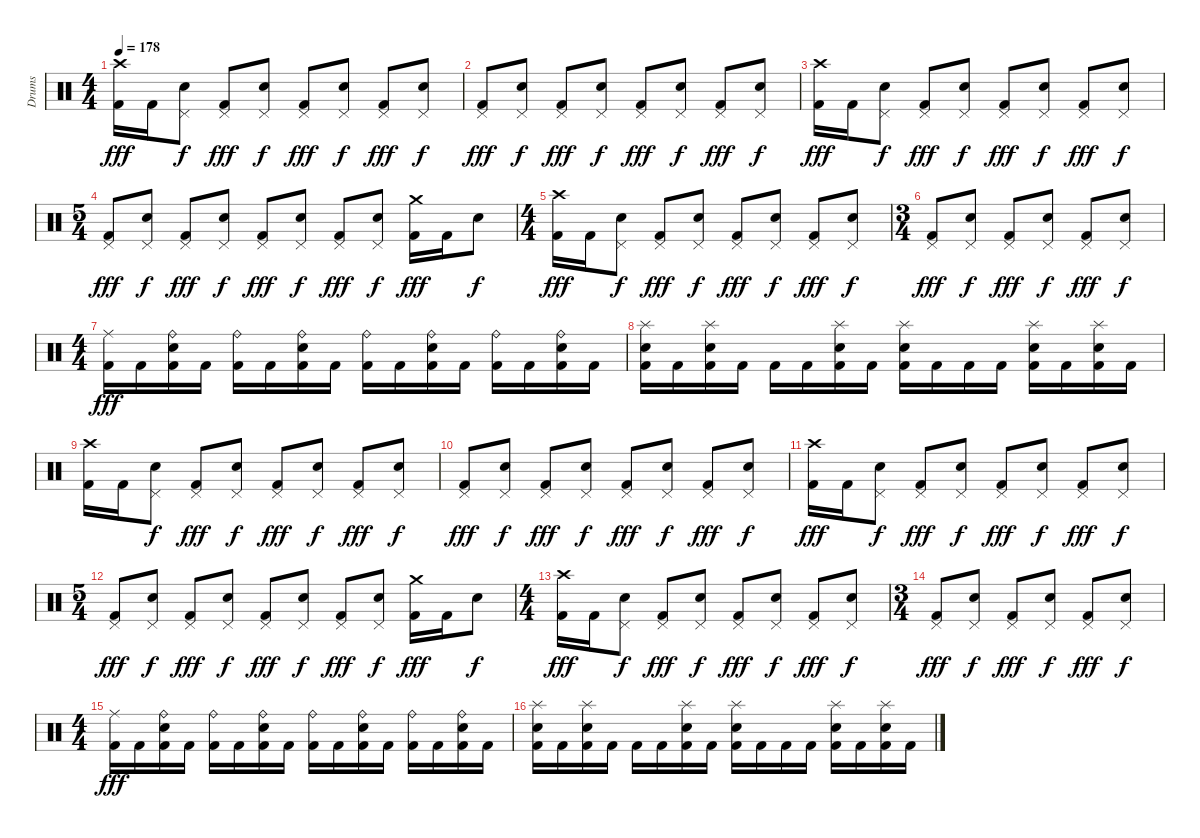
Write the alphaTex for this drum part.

\track ("Drums" "Drums") {instrument percussion}
\staff {score}
\articulation defaults
\ts (4 4)
\tempo 178
\clef neutral
\ks c
("Crash high (hit)" "Kick (hit) 2").16{dy fff} "Kick (hit) 2".16 ("Pedal Hi-Hat (hit)" "Electric Snare (hit)").8{dy f} ("Pedal Hi-Hat (hit)" "Kick (hit) 2").8{dy fff} ("Pedal Hi-Hat (hit)" "Electric Snare (hit)").8{dy f} ("Pedal Hi-Hat (hit)" "Kick (hit) 2").8{dy fff} ("Pedal Hi-Hat (hit)" "Electric Snare (hit)").8{dy f} ("Pedal Hi-Hat (hit)" "Kick (hit) 2").8{dy fff} ("Pedal Hi-Hat (hit)" "Electric Snare (hit)").8{dy f} |
("Pedal Hi-Hat (hit)" "Kick (hit) 2").8{dy fff} ("Pedal Hi-Hat (hit)" "Electric Snare (hit)").8{dy f} ("Pedal Hi-Hat (hit)" "Kick (hit) 2").8{dy fff} ("Pedal Hi-Hat (hit)" "Electric Snare (hit)").8{dy f} ("Pedal Hi-Hat (hit)" "Kick (hit) 2").8{dy fff} ("Pedal Hi-Hat (hit)" "Electric Snare (hit)").8{dy f} ("Pedal Hi-Hat (hit)" "Kick (hit) 2").8{dy fff} ("Pedal Hi-Hat (hit)" "Electric Snare (hit)").8{dy f} |
("Crash high (hit)" "Kick (hit) 2").16{dy fff} "Kick (hit) 2".16 ("Pedal Hi-Hat (hit)" "Electric Snare (hit)").8{dy f} ("Pedal Hi-Hat (hit)" "Kick (hit) 2").8{dy fff} ("Pedal Hi-Hat (hit)" "Electric Snare (hit)").8{dy f} ("Pedal Hi-Hat (hit)" "Kick (hit) 2").8{dy fff} ("Pedal Hi-Hat (hit)" "Electric Snare (hit)").8{dy f} ("Pedal Hi-Hat (hit)" "Kick (hit) 2").8{dy fff} ("Pedal Hi-Hat (hit)" "Electric Snare (hit)").8{dy f} |
\ts (5 4)
("Pedal Hi-Hat (hit)" "Kick (hit) 2").8{dy fff} ("Pedal Hi-Hat (hit)" "Electric Snare (hit)").8{dy f} ("Pedal Hi-Hat (hit)" "Kick (hit) 2").8{dy fff} ("Pedal Hi-Hat (hit)" "Electric Snare (hit)").8{dy f} ("Pedal Hi-Hat (hit)" "Kick (hit) 2").8{dy fff} ("Pedal Hi-Hat (hit)" "Electric Snare (hit)").8{dy f} ("Pedal Hi-Hat (hit)" "Kick (hit) 2").8{dy fff} ("Pedal Hi-Hat (hit)" "Electric Snare (hit)").8{dy f} ("Crash medium (hit)" "Kick (hit) 2").16{dy fff} "Kick (hit) 2".16 "Electric Snare (hit)".8{dy f} |
\ts (4 4)
("Crash high (hit)" "Kick (hit) 2").16{dy fff} "Kick (hit) 2".16 ("Pedal Hi-Hat (hit)" "Electric Snare (hit)").8{dy f} ("Pedal Hi-Hat (hit)" "Kick (hit) 2").8{dy fff} ("Pedal Hi-Hat (hit)" "Electric Snare (hit)").8{dy f} ("Pedal Hi-Hat (hit)" "Kick (hit) 2").8{dy fff} ("Pedal Hi-Hat (hit)" "Electric Snare (hit)").8{dy f} ("Pedal Hi-Hat (hit)" "Kick (hit) 2").8{dy fff} ("Pedal Hi-Hat (hit)" "Electric Snare (hit)").8{dy f} |
\ts (3 4)
("Pedal Hi-Hat (hit)" "Kick (hit) 2").8{dy fff} ("Pedal Hi-Hat (hit)" "Electric Snare (hit)").8{dy f} ("Pedal Hi-Hat (hit)" "Kick (hit) 2").8{dy fff} ("Pedal Hi-Hat (hit)" "Electric Snare (hit)").8{dy f} ("Pedal Hi-Hat (hit)" "Kick (hit) 2").8{dy fff} ("Pedal Hi-Hat (hit)" "Electric Snare (hit)").8{dy f} |
\ts (4 4)
("Ride (middle)" "Kick (hit) 2").16{dy fff} "Kick (hit) 2".16 ("Ride (bell)" "Electric Snare (hit)" "Kick (hit) 2").16 "Kick (hit) 2".16 ("Ride (bell)" "Kick (hit) 2").16 "Kick (hit) 2".16 ("Ride (bell)" "Electric Snare (hit)" "Kick (hit) 2").16 "Kick (hit) 2".16 ("Ride (bell)" "Kick (hit) 2").16 "Kick (hit) 2".16 ("Ride (bell)" "Electric Snare (hit)" "Kick (hit) 2").16 "Kick (hit) 2".16 ("Ride (bell)" "Kick (hit) 2").16 "Kick (hit) 2".16 ("Ride (bell)" "Electric Snare (hit)" "Kick (hit) 2").16 "Kick (hit) 2".16 |
("Splash (hit)" "Electric Snare (hit)" "Kick (hit) 2").16 "Kick (hit) 2".16 ("Splash (hit)" "Electric Snare (hit)" "Kick (hit) 2").16 "Kick (hit) 2".16 "Kick (hit) 2".16 "Kick (hit) 2".16 ("Splash (hit)" "Electric Snare (hit)" "Kick (hit) 2").16 "Kick (hit) 2".16 ("Splash (hit)" "Electric Snare (hit)" "Kick (hit) 2").16 "Kick (hit) 2".16 "Kick (hit) 2".16 "Kick (hit) 2".16 ("Splash (hit)" "Electric Snare (hit)" "Kick (hit) 2").16 "Kick (hit) 2".16 ("Splash (hit)" "Electric Snare (hit)" "Kick (hit) 2").16 "Kick (hit) 2".16 |
("Crash high (hit)" "Kick (hit) 2").16 "Kick (hit) 2".16 ("Pedal Hi-Hat (hit)" "Electric Snare (hit)").8{dy f} ("Pedal Hi-Hat (hit)" "Kick (hit) 2").8{dy fff} ("Pedal Hi-Hat (hit)" "Electric Snare (hit)").8{dy f} ("Pedal Hi-Hat (hit)" "Kick (hit) 2").8{dy fff} ("Pedal Hi-Hat (hit)" "Electric Snare (hit)").8{dy f} ("Pedal Hi-Hat (hit)" "Kick (hit) 2").8{dy fff} ("Pedal Hi-Hat (hit)" "Electric Snare (hit)").8{dy f} |
("Pedal Hi-Hat (hit)" "Kick (hit) 2").8{dy fff} ("Pedal Hi-Hat (hit)" "Electric Snare (hit)").8{dy f} ("Pedal Hi-Hat (hit)" "Kick (hit) 2").8{dy fff} ("Pedal Hi-Hat (hit)" "Electric Snare (hit)").8{dy f} ("Pedal Hi-Hat (hit)" "Kick (hit) 2").8{dy fff} ("Pedal Hi-Hat (hit)" "Electric Snare (hit)").8{dy f} ("Pedal Hi-Hat (hit)" "Kick (hit) 2").8{dy fff} ("Pedal Hi-Hat (hit)" "Electric Snare (hit)").8{dy f} |
("Crash high (hit)" "Kick (hit) 2").16{dy fff} "Kick (hit) 2".16 ("Pedal Hi-Hat (hit)" "Electric Snare (hit)").8{dy f} ("Pedal Hi-Hat (hit)" "Kick (hit) 2").8{dy fff} ("Pedal Hi-Hat (hit)" "Electric Snare (hit)").8{dy f} ("Pedal Hi-Hat (hit)" "Kick (hit) 2").8{dy fff} ("Pedal Hi-Hat (hit)" "Electric Snare (hit)").8{dy f} ("Pedal Hi-Hat (hit)" "Kick (hit) 2").8{dy fff} ("Pedal Hi-Hat (hit)" "Electric Snare (hit)").8{dy f} |
\ts (5 4)
("Pedal Hi-Hat (hit)" "Kick (hit) 2").8{dy fff} ("Pedal Hi-Hat (hit)" "Electric Snare (hit)").8{dy f} ("Pedal Hi-Hat (hit)" "Kick (hit) 2").8{dy fff} ("Pedal Hi-Hat (hit)" "Electric Snare (hit)").8{dy f} ("Pedal Hi-Hat (hit)" "Kick (hit) 2").8{dy fff} ("Pedal Hi-Hat (hit)" "Electric Snare (hit)").8{dy f} ("Pedal Hi-Hat (hit)" "Kick (hit) 2").8{dy fff} ("Pedal Hi-Hat (hit)" "Electric Snare (hit)").8{dy f} ("Crash medium (hit)" "Kick (hit) 2").16{dy fff} "Kick (hit) 2".16 "Electric Snare (hit)".8{dy f} |
\ts (4 4)
("Crash high (hit)" "Kick (hit) 2").16{dy fff} "Kick (hit) 2".16 ("Pedal Hi-Hat (hit)" "Electric Snare (hit)").8{dy f} ("Pedal Hi-Hat (hit)" "Kick (hit) 2").8{dy fff} ("Pedal Hi-Hat (hit)" "Electric Snare (hit)").8{dy f} ("Pedal Hi-Hat (hit)" "Kick (hit) 2").8{dy fff} ("Pedal Hi-Hat (hit)" "Electric Snare (hit)").8{dy f} ("Pedal Hi-Hat (hit)" "Kick (hit) 2").8{dy fff} ("Pedal Hi-Hat (hit)" "Electric Snare (hit)").8{dy f} |
\ts (3 4)
("Pedal Hi-Hat (hit)" "Kick (hit) 2").8{dy fff} ("Pedal Hi-Hat (hit)" "Electric Snare (hit)").8{dy f} ("Pedal Hi-Hat (hit)" "Kick (hit) 2").8{dy fff} ("Pedal Hi-Hat (hit)" "Electric Snare (hit)").8{dy f} ("Pedal Hi-Hat (hit)" "Kick (hit) 2").8{dy fff} ("Pedal Hi-Hat (hit)" "Electric Snare (hit)").8{dy f} |
\ts (4 4)
("Ride (middle)" "Kick (hit) 2").16{dy fff} "Kick (hit) 2".16 ("Ride (bell)" "Electric Snare (hit)" "Kick (hit) 2").16 "Kick (hit) 2".16 ("Ride (bell)" "Kick (hit) 2").16 "Kick (hit) 2".16 ("Ride (bell)" "Electric Snare (hit)" "Kick (hit) 2").16 "Kick (hit) 2".16 ("Ride (bell)" "Kick (hit) 2").16 "Kick (hit) 2".16 ("Ride (bell)" "Electric Snare (hit)" "Kick (hit) 2").16 "Kick (hit) 2".16 ("Ride (bell)" "Kick (hit) 2").16 "Kick (hit) 2".16 ("Ride (bell)" "Electric Snare (hit)" "Kick (hit) 2").16 "Kick (hit) 2".16 |
("Splash (hit)" "Electric Snare (hit)" "Kick (hit) 2").16 "Kick (hit) 2".16 ("Splash (hit)" "Electric Snare (hit)" "Kick (hit) 2").16 "Kick (hit) 2".16 "Kick (hit) 2".16 "Kick (hit) 2".16 ("Splash (hit)" "Electric Snare (hit)" "Kick (hit) 2").16 "Kick (hit) 2".16 ("Splash (hit)" "Electric Snare (hit)" "Kick (hit) 2").16 "Kick (hit) 2".16 "Kick (hit) 2".16 "Kick (hit) 2".16 ("Splash (hit)" "Electric Snare (hit)" "Kick (hit) 2").16 "Kick (hit) 2".16 ("Splash (hit)" "Electric Snare (hit)" "Kick (hit) 2").16 "Kick (hit) 2".16
